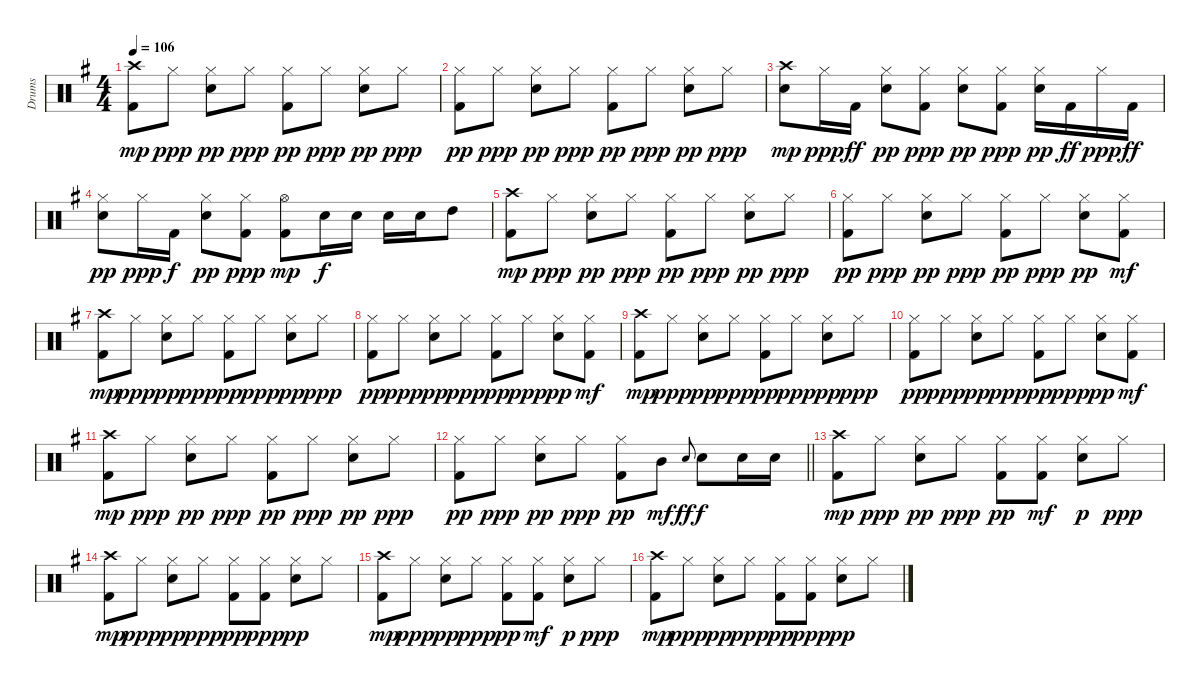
\track ("Drums" "Drums") {instrument percussion}
\staff {score}
\articulation defaults
\ts (4 4)
\tempo 106
\clef neutral
\ks g
("Kick (hit) 2" "Crash high (hit)").8{dy mp} "Hi-Hat (closed)".8{dy ppp} ("Hi-Hat (closed)" "Electric Snare (hit)").8{dy pp} "Hi-Hat (closed)".8{dy ppp} ("Hi-Hat (closed)" "Kick (hit) 2").8{dy pp} "Hi-Hat (closed)".8{dy ppp} ("Hi-Hat (closed)" "Electric Snare (hit)").8{dy pp} "Hi-Hat (closed)".8{dy ppp} |
("Hi-Hat (closed)" "Kick (hit) 2").8{dy pp} "Hi-Hat (closed)".8{dy ppp} ("Hi-Hat (closed)" "Electric Snare (hit)").8{dy pp} "Hi-Hat (closed)".8{dy ppp} ("Hi-Hat (closed)" "Kick (hit) 2").8{dy pp} "Hi-Hat (closed)".8{dy ppp} ("Hi-Hat (closed)" "Electric Snare (hit)").8{dy pp} "Hi-Hat (closed)".8{dy ppp} |
("Electric Snare (hit)" "Crash high (hit)").8{dy mp} "Hi-Hat (closed)".16{dy ppp} "Kick (hit) 2".16{dy ff} ("Electric Snare (hit)" "Hi-Hat (closed)").8{dy pp} ("Kick (hit) 2" "Hi-Hat (closed)").8{dy ppp} ("Electric Snare (hit)" "Hi-Hat (closed)").8{dy pp} ("Kick (hit) 2" "Hi-Hat (closed)").8{dy ppp} ("Electric Snare (hit)" "Hi-Hat (closed)").16{dy pp} "Kick (hit) 2".16{dy ff} "Hi-Hat (closed)".16{dy ppp} "Kick (hit) 2".16{dy ff} |
("Electric Snare (hit)" "Hi-Hat (closed)").8{dy pp} "Hi-Hat (closed)".16{dy ppp} "Kick (hit) 2".16{dy f} ("Electric Snare (hit)" "Hi-Hat (closed)").8{dy pp} ("Kick (hit) 2" "Hi-Hat (closed)").8{dy ppp} ("Kick (hit) 2" "Hi-Hat (open)").8{dy mp} "Electric Snare (hit)".16{dy f} "Electric Snare (hit)".16 "Electric Snare (hit)".16 "Electric Snare (hit)".16 "High Tom (hit)".8 |
("Kick (hit) 2" "Crash high (hit)").8{dy mp} "Hi-Hat (closed)".8{dy ppp} ("Hi-Hat (closed)" "Electric Snare (hit)").8{dy pp} "Hi-Hat (closed)".8{dy ppp} ("Hi-Hat (closed)" "Kick (hit) 2").8{dy pp} "Hi-Hat (closed)".8{dy ppp} ("Hi-Hat (closed)" "Electric Snare (hit)").8{dy pp} "Hi-Hat (closed)".8{dy ppp} |
("Hi-Hat (closed)" "Kick (hit) 2").8{dy pp} "Hi-Hat (closed)".8{dy ppp} ("Hi-Hat (closed)" "Electric Snare (hit)").8{dy pp} "Hi-Hat (closed)".8{dy ppp} ("Hi-Hat (closed)" "Kick (hit) 2").8{dy pp} "Hi-Hat (closed)".8{dy ppp} ("Hi-Hat (closed)" "Electric Snare (hit)").8{dy pp} ("Hi-Hat (closed)" "Kick (hit) 2").8{dy mf} |
("Kick (hit) 2" "Crash high (hit)").8{dy mp} "Hi-Hat (closed)".8{dy ppp} ("Hi-Hat (closed)" "Electric Snare (hit)").8{dy pp} "Hi-Hat (closed)".8{dy ppp} ("Hi-Hat (closed)" "Kick (hit) 2").8{dy pp} "Hi-Hat (closed)".8{dy ppp} ("Hi-Hat (closed)" "Electric Snare (hit)").8{dy pp} "Hi-Hat (closed)".8{dy ppp} |
("Hi-Hat (closed)" "Kick (hit) 2").8{dy pp} "Hi-Hat (closed)".8{dy ppp} ("Hi-Hat (closed)" "Electric Snare (hit)").8{dy pp} "Hi-Hat (closed)".8{dy ppp} ("Hi-Hat (closed)" "Kick (hit) 2").8{dy pp} "Hi-Hat (closed)".8{dy ppp} ("Hi-Hat (closed)" "Electric Snare (hit)").8{dy pp} ("Hi-Hat (closed)" "Kick (hit) 2").8{dy mf} |
("Kick (hit) 2" "Crash high (hit)").8{dy mp} "Hi-Hat (closed)".8{dy ppp} ("Hi-Hat (closed)" "Electric Snare (hit)").8{dy pp} "Hi-Hat (closed)".8{dy ppp} ("Hi-Hat (closed)" "Kick (hit) 2").8{dy pp} "Hi-Hat (closed)".8{dy ppp} ("Hi-Hat (closed)" "Electric Snare (hit)").8{dy pp} "Hi-Hat (closed)".8{dy ppp} |
("Hi-Hat (closed)" "Kick (hit) 2").8{dy pp} "Hi-Hat (closed)".8{dy ppp} ("Hi-Hat (closed)" "Electric Snare (hit)").8{dy pp} "Hi-Hat (closed)".8{dy ppp} ("Hi-Hat (closed)" "Kick (hit) 2").8{dy pp} "Hi-Hat (closed)".8{dy ppp} ("Hi-Hat (closed)" "Electric Snare (hit)").8{dy pp} ("Hi-Hat (closed)" "Kick (hit) 2").8{dy mf} |
("Kick (hit) 2" "Crash high (hit)").8{dy mp} "Hi-Hat (closed)".8{dy ppp} ("Hi-Hat (closed)" "Electric Snare (hit)").8{dy pp} "Hi-Hat (closed)".8{dy ppp} ("Hi-Hat (closed)" "Kick (hit) 2").8{dy pp} "Hi-Hat (closed)".8{dy ppp} ("Hi-Hat (closed)" "Electric Snare (hit)").8{dy pp} "Hi-Hat (closed)".8{dy ppp} |
\barLineRight lightlight
("Hi-Hat (closed)" "Kick (hit) 2").8{dy pp} "Hi-Hat (closed)".8{dy ppp} ("Hi-Hat (closed)" "Electric Snare (hit)").8{dy pp} "Hi-Hat (closed)".8{dy ppp} ("Hi-Hat (closed)" "Kick (hit) 2").8{dy pp} "Mid Tom (hit)".8{dy mf} "Electric Snare (hit)".8{gr onbeat dy ff} "Electric Snare (hit)".8{dy f} "Electric Snare (hit)".16 "Electric Snare (hit)".16 |
("Kick (hit) 2" "Crash high (hit)").8{dy mp} "Hi-Hat (closed)".8{dy ppp} ("Hi-Hat (closed)" "Electric Snare (hit)").8{dy pp} "Hi-Hat (closed)".8{dy ppp} ("Hi-Hat (closed)" "Kick (hit) 2").8{dy pp} ("Hi-Hat (closed)" "Kick (hit) 2").8{dy mf} ("Hi-Hat (closed)" "Electric Snare (hit)").8{dy p} "Hi-Hat (closed)".8{dy ppp} |
("Kick (hit) 2" "Crash high (hit)").8{dy mp} "Hi-Hat (closed)".8{dy ppp} ("Hi-Hat (closed)" "Electric Snare (hit)").8{dy pp} "Hi-Hat (closed)".8{dy ppp} ("Hi-Hat (closed)" "Kick (hit) 2").8{dy pp} ("Hi-Hat (closed)" "Kick (hit) 2").8{dy ppp} ("Hi-Hat (closed)" "Electric Snare (hit)").8{dy pp} "Hi-Hat (closed)".8 |
("Kick (hit) 2" "Crash high (hit)").8{dy mp} "Hi-Hat (closed)".8{dy ppp} ("Hi-Hat (closed)" "Electric Snare (hit)").8{dy pp} "Hi-Hat (closed)".8{dy ppp} ("Hi-Hat (closed)" "Kick (hit) 2").8{dy pp} ("Hi-Hat (closed)" "Kick (hit) 2").8{dy mf} ("Hi-Hat (closed)" "Electric Snare (hit)").8{dy p} "Hi-Hat (closed)".8{dy ppp} |
("Kick (hit) 2" "Crash high (hit)").8{dy mp} "Hi-Hat (closed)".8{dy ppp} ("Hi-Hat (closed)" "Electric Snare (hit)").8{dy pp} "Hi-Hat (closed)".8{dy ppp} ("Hi-Hat (closed)" "Kick (hit) 2").8{dy pp} ("Hi-Hat (closed)" "Kick (hit) 2").8{dy ppp} ("Hi-Hat (closed)" "Electric Snare (hit)").8{dy pp} "Hi-Hat (closed)".8
